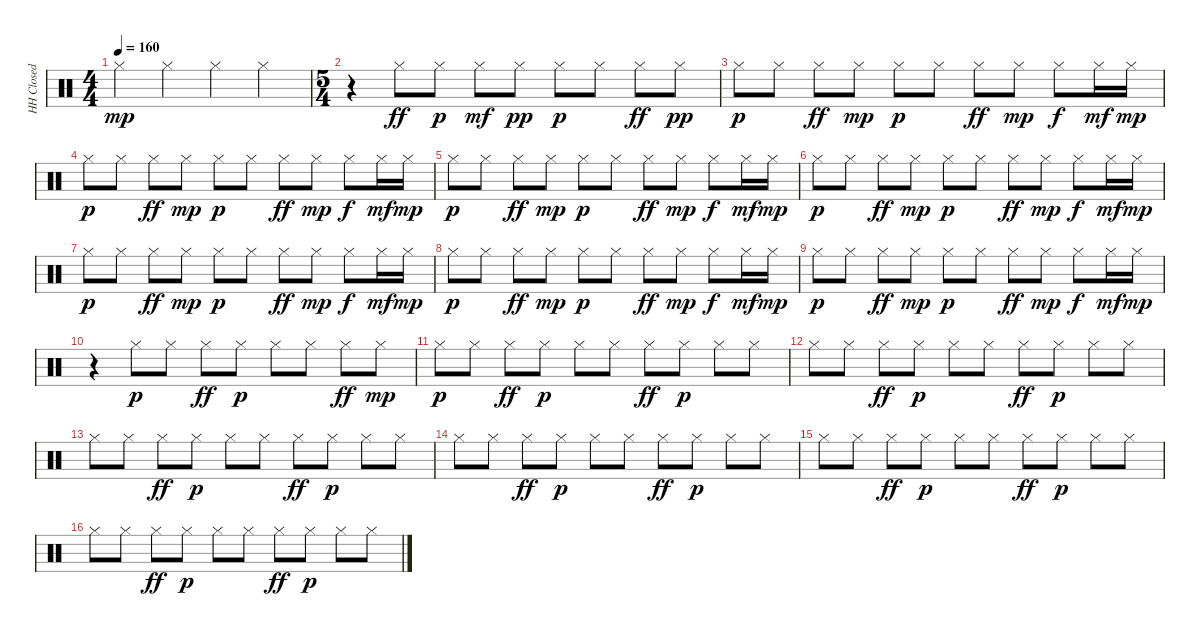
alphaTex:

\track ("HH Closed" "HH Closed") {instrument percussion}
\staff {score}
\articulation defaults
\ts (4 4)
\tempo 160
\clef neutral
\ks c "Hi-Hat (closed)".4{dy mp} "Hi-Hat (closed)".4 "Hi-Hat (closed)".4 "Hi-Hat (closed)".4
|
\ts (5 4)
r.4 "Hi-Hat (closed)".8{dy ff} "Hi-Hat (closed)".8{dy p} "Hi-Hat (closed)".8{dy mf} "Hi-Hat (closed)".8{dy pp} "Hi-Hat (closed)".8{dy p} "Hi-Hat (closed)".8 "Hi-Hat (closed)".8{dy ff} "Hi-Hat (closed)".8{dy pp} |
"Hi-Hat (closed)".8{dy p} "Hi-Hat (closed)".8 "Hi-Hat (closed)".8{dy ff} "Hi-Hat (closed)".8{dy mp} "Hi-Hat (closed)".8{dy p} "Hi-Hat (closed)".8 "Hi-Hat (closed)".8{dy ff} "Hi-Hat (closed)".8{dy mp} "Hi-Hat (closed)".8{dy f} "Hi-Hat (closed)".16{dy mf} "Hi-Hat (closed)".16{dy mp} |
"Hi-Hat (closed)".8{dy p} "Hi-Hat (closed)".8 "Hi-Hat (closed)".8{dy ff} "Hi-Hat (closed)".8{dy mp} "Hi-Hat (closed)".8{dy p} "Hi-Hat (closed)".8 "Hi-Hat (closed)".8{dy ff} "Hi-Hat (closed)".8{dy mp} "Hi-Hat (closed)".8{dy f} "Hi-Hat (closed)".16{dy mf} "Hi-Hat (closed)".16{dy mp} |
"Hi-Hat (closed)".8{dy p} "Hi-Hat (closed)".8 "Hi-Hat (closed)".8{dy ff} "Hi-Hat (closed)".8{dy mp} "Hi-Hat (closed)".8{dy p} "Hi-Hat (closed)".8 "Hi-Hat (closed)".8{dy ff} "Hi-Hat (closed)".8{dy mp} "Hi-Hat (closed)".8{dy f} "Hi-Hat (closed)".16{dy mf} "Hi-Hat (closed)".16{dy mp} |
"Hi-Hat (closed)".8{dy p} "Hi-Hat (closed)".8 "Hi-Hat (closed)".8{dy ff} "Hi-Hat (closed)".8{dy mp} "Hi-Hat (closed)".8{dy p} "Hi-Hat (closed)".8 "Hi-Hat (closed)".8{dy ff} "Hi-Hat (closed)".8{dy mp} "Hi-Hat (closed)".8{dy f} "Hi-Hat (closed)".16{dy mf} "Hi-Hat (closed)".16{dy mp} |
"Hi-Hat (closed)".8{dy p} "Hi-Hat (closed)".8 "Hi-Hat (closed)".8{dy ff} "Hi-Hat (closed)".8{dy mp} "Hi-Hat (closed)".8{dy p} "Hi-Hat (closed)".8 "Hi-Hat (closed)".8{dy ff} "Hi-Hat (closed)".8{dy mp} "Hi-Hat (closed)".8{dy f} "Hi-Hat (closed)".16{dy mf} "Hi-Hat (closed)".16{dy mp} |
"Hi-Hat (closed)".8{dy p} "Hi-Hat (closed)".8 "Hi-Hat (closed)".8{dy ff} "Hi-Hat (closed)".8{dy mp} "Hi-Hat (closed)".8{dy p} "Hi-Hat (closed)".8 "Hi-Hat (closed)".8{dy ff} "Hi-Hat (closed)".8{dy mp} "Hi-Hat (closed)".8{dy f} "Hi-Hat (closed)".16{dy mf} "Hi-Hat (closed)".16{dy mp} |
"Hi-Hat (closed)".8{dy p} "Hi-Hat (closed)".8 "Hi-Hat (closed)".8{dy ff} "Hi-Hat (closed)".8{dy mp} "Hi-Hat (closed)".8{dy p} "Hi-Hat (closed)".8 "Hi-Hat (closed)".8{dy ff} "Hi-Hat (closed)".8{dy mp} "Hi-Hat (closed)".8{dy f} "Hi-Hat (closed)".16{dy mf} "Hi-Hat (closed)".16{dy mp} |
r.4 "Hi-Hat (closed)".8{dy p} "Hi-Hat (closed)".8 "Hi-Hat (closed)".8{dy ff} "Hi-Hat (closed)".8{dy p} "Hi-Hat (closed)".8 "Hi-Hat (closed)".8 "Hi-Hat (closed)".8{dy ff} "Hi-Hat (closed)".8{dy mp} |
"Hi-Hat (closed)".8{dy p} "Hi-Hat (closed)".8 "Hi-Hat (closed)".8{dy ff} "Hi-Hat (closed)".8{dy p} "Hi-Hat (closed)".8 "Hi-Hat (closed)".8 "Hi-Hat (closed)".8{dy ff} "Hi-Hat (closed)".8{dy p} "Hi-Hat (closed)".8 "Hi-Hat (closed)".8 |
"Hi-Hat (closed)".8 "Hi-Hat (closed)".8 "Hi-Hat (closed)".8{dy ff} "Hi-Hat (closed)".8{dy p} "Hi-Hat (closed)".8 "Hi-Hat (closed)".8 "Hi-Hat (closed)".8{dy ff} "Hi-Hat (closed)".8{dy p} "Hi-Hat (closed)".8 "Hi-Hat (closed)".8 |
"Hi-Hat (closed)".8 "Hi-Hat (closed)".8 "Hi-Hat (closed)".8{dy ff} "Hi-Hat (closed)".8{dy p} "Hi-Hat (closed)".8 "Hi-Hat (closed)".8 "Hi-Hat (closed)".8{dy ff} "Hi-Hat (closed)".8{dy p} "Hi-Hat (closed)".8 "Hi-Hat (closed)".8 |
"Hi-Hat (closed)".8 "Hi-Hat (closed)".8 "Hi-Hat (closed)".8{dy ff} "Hi-Hat (closed)".8{dy p} "Hi-Hat (closed)".8 "Hi-Hat (closed)".8 "Hi-Hat (closed)".8{dy ff} "Hi-Hat (closed)".8{dy p} "Hi-Hat (closed)".8 "Hi-Hat (closed)".8 |
"Hi-Hat (closed)".8 "Hi-Hat (closed)".8 "Hi-Hat (closed)".8{dy ff} "Hi-Hat (closed)".8{dy p} "Hi-Hat (closed)".8 "Hi-Hat (closed)".8 "Hi-Hat (closed)".8{dy ff} "Hi-Hat (closed)".8{dy p} "Hi-Hat (closed)".8 "Hi-Hat (closed)".8 |
"Hi-Hat (closed)".8 "Hi-Hat (closed)".8 "Hi-Hat (closed)".8{dy ff} "Hi-Hat (closed)".8{dy p} "Hi-Hat (closed)".8 "Hi-Hat (closed)".8 "Hi-Hat (closed)".8{dy ff} "Hi-Hat (closed)".8{dy p} "Hi-Hat (closed)".8 "Hi-Hat (closed)".8
